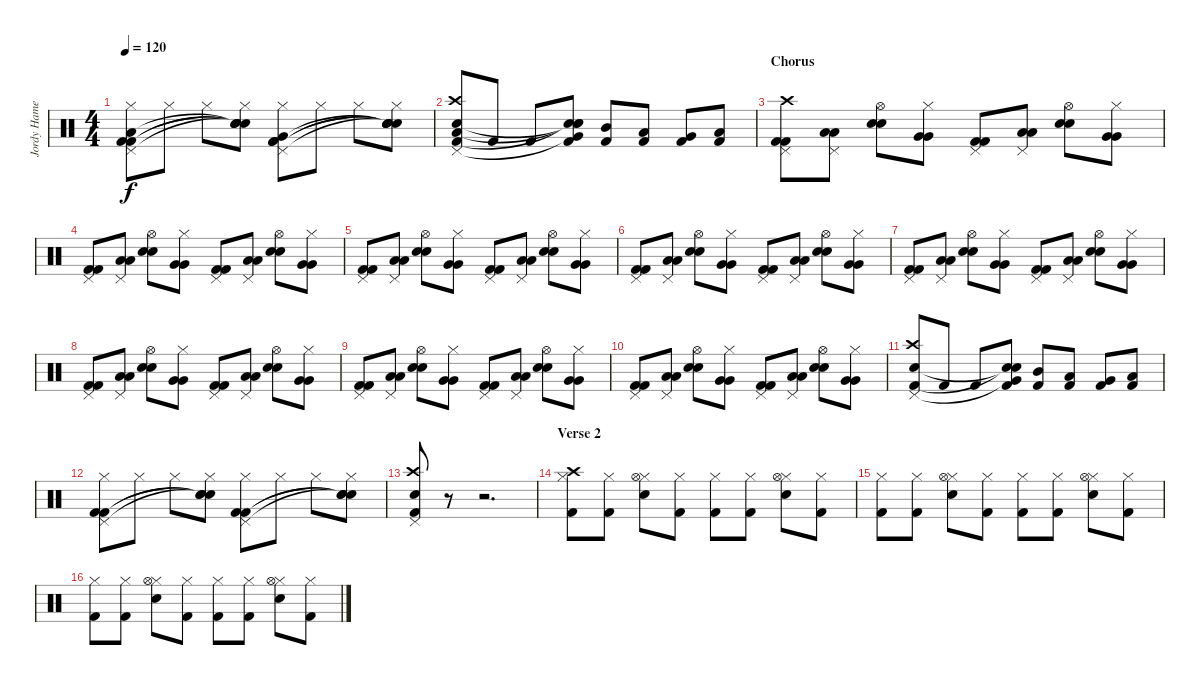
\track ("Jordy Hamer" "Jordy Hame") {instrument percussion}
\staff {score}
\articulation defaults
\ts (4 4)
\tempo 120
\clef neutral
\ks c
("Hi-Hat (closed)" "Pedal Hi-Hat (hit)" "Kick (hit) 2" "Kick (hit) 2" "Low Floor Tom (hit)").8{dy f} "Hi-Hat (closed)".8 "Hi-Hat (closed)".8 ("Hi-Hat (closed)" "Snare (hit)"{t} "Snare (hit)"{t} "Snare (hit)"{t} "Snare (hit)"{t}).8 ("Hi-Hat (closed)" "Pedal Hi-Hat (hit)" "Kick (hit) 2" "Kick (hit) 2" "Very Low Tom (hit)").8 "Hi-Hat (closed)".8 "Hi-Hat (closed)".8 ("Hi-Hat (closed)" "Snare (hit)"{t} "Snare (hit)"{t} "Snare (hit)"{t} "Snare (hit)"{t}).8 |
("Crash high (hit)" "Pedal Hi-Hat (hit)" "Electric Snare (hit)" "Kick (hit) 2" "Low Tom (hit)").8 "Kick (hit) 2".8 "Kick (hit) 2".8 ("Kick (hit) 2" "Very Low Tom (hit)"{t} "Snare (hit)"{t} "Snare (hit)"{t} "Snare (hit)"{t}).8 ("Kick (hit) 2" "Mid Tom (hit)").8 ("Kick (hit) 2" "Low Tom (hit)").8 ("Kick (hit) 2" "Very Low Tom (hit)").8 ("Kick (hit) 2" "Low Floor Tom (hit)").8 |
\section ("" "Chorus")
("Crash high (hit)" "Pedal Hi-Hat (hit)" "Kick (hit) 2" "Kick (hit) 2").8 ("Pedal Hi-Hat (hit)" "Low Floor Tom (hit)" "Low Floor Tom (hit)").8 ("Hi-Hat (open)" "Electric Snare (hit)" "Electric Snare (hit)").8 ("Hi-Hat (closed)" "Very Low Tom (hit)" "Very Low Tom (hit)").8 ("Pedal Hi-Hat (hit)" "Kick (hit) 2" "Kick (hit) 2").8 ("Pedal Hi-Hat (hit)" "Low Floor Tom (hit)" "Low Floor Tom (hit)").8 ("Hi-Hat (open)" "Electric Snare (hit)" "Electric Snare (hit)").8 ("Hi-Hat (closed)" "Very Low Tom (hit)" "Very Low Tom (hit)").8 |
("Pedal Hi-Hat (hit)" "Kick (hit) 2" "Kick (hit) 2").8 ("Pedal Hi-Hat (hit)" "Low Floor Tom (hit)" "Low Floor Tom (hit)").8 ("Hi-Hat (open)" "Electric Snare (hit)" "Electric Snare (hit)").8 ("Hi-Hat (closed)" "Very Low Tom (hit)" "Very Low Tom (hit)").8 ("Pedal Hi-Hat (hit)" "Kick (hit) 2" "Kick (hit) 2").8 ("Pedal Hi-Hat (hit)" "Low Floor Tom (hit)" "Low Floor Tom (hit)").8 ("Hi-Hat (open)" "Electric Snare (hit)" "Electric Snare (hit)").8 ("Hi-Hat (closed)" "Very Low Tom (hit)" "Very Low Tom (hit)").8 |
("Pedal Hi-Hat (hit)" "Kick (hit) 2" "Kick (hit) 2").8 ("Pedal Hi-Hat (hit)" "Low Floor Tom (hit)" "Low Floor Tom (hit)").8 ("Hi-Hat (open)" "Electric Snare (hit)" "Electric Snare (hit)").8 ("Hi-Hat (closed)" "Very Low Tom (hit)" "Very Low Tom (hit)").8 ("Pedal Hi-Hat (hit)" "Kick (hit) 2" "Kick (hit) 2").8 ("Pedal Hi-Hat (hit)" "Low Floor Tom (hit)" "Low Floor Tom (hit)").8 ("Hi-Hat (open)" "Electric Snare (hit)" "Electric Snare (hit)").8 ("Hi-Hat (closed)" "Very Low Tom (hit)" "Very Low Tom (hit)").8 |
("Pedal Hi-Hat (hit)" "Kick (hit) 2" "Kick (hit) 2").8 ("Pedal Hi-Hat (hit)" "Low Floor Tom (hit)" "Low Floor Tom (hit)").8 ("Hi-Hat (open)" "Electric Snare (hit)" "Electric Snare (hit)").8 ("Hi-Hat (closed)" "Very Low Tom (hit)" "Very Low Tom (hit)").8 ("Pedal Hi-Hat (hit)" "Kick (hit) 2" "Kick (hit) 2").8 ("Pedal Hi-Hat (hit)" "Low Floor Tom (hit)" "Low Floor Tom (hit)").8 ("Hi-Hat (open)" "Electric Snare (hit)" "Electric Snare (hit)").8 ("Hi-Hat (closed)" "Very Low Tom (hit)" "Very Low Tom (hit)").8 |
("Pedal Hi-Hat (hit)" "Kick (hit) 2" "Kick (hit) 2").8 ("Pedal Hi-Hat (hit)" "Low Floor Tom (hit)" "Low Floor Tom (hit)").8 ("Hi-Hat (open)" "Electric Snare (hit)" "Electric Snare (hit)").8 ("Hi-Hat (closed)" "Very Low Tom (hit)" "Very Low Tom (hit)").8 ("Pedal Hi-Hat (hit)" "Kick (hit) 2" "Kick (hit) 2").8 ("Pedal Hi-Hat (hit)" "Low Floor Tom (hit)" "Low Floor Tom (hit)").8 ("Hi-Hat (open)" "Electric Snare (hit)" "Electric Snare (hit)").8 ("Hi-Hat (closed)" "Very Low Tom (hit)" "Very Low Tom (hit)").8 |
("Pedal Hi-Hat (hit)" "Kick (hit) 2" "Kick (hit) 2").8 ("Pedal Hi-Hat (hit)" "Low Floor Tom (hit)" "Low Floor Tom (hit)").8 ("Hi-Hat (open)" "Electric Snare (hit)" "Electric Snare (hit)").8 ("Hi-Hat (closed)" "Very Low Tom (hit)" "Very Low Tom (hit)").8 ("Pedal Hi-Hat (hit)" "Kick (hit) 2" "Kick (hit) 2").8 ("Pedal Hi-Hat (hit)" "Low Floor Tom (hit)" "Low Floor Tom (hit)").8 ("Hi-Hat (open)" "Electric Snare (hit)" "Electric Snare (hit)").8 ("Hi-Hat (closed)" "Very Low Tom (hit)" "Very Low Tom (hit)").8 |
("Pedal Hi-Hat (hit)" "Kick (hit) 2" "Kick (hit) 2").8 ("Pedal Hi-Hat (hit)" "Low Floor Tom (hit)" "Low Floor Tom (hit)").8 ("Hi-Hat (open)" "Electric Snare (hit)" "Electric Snare (hit)").8 ("Hi-Hat (closed)" "Very Low Tom (hit)" "Very Low Tom (hit)").8 ("Pedal Hi-Hat (hit)" "Kick (hit) 2" "Kick (hit) 2").8 ("Pedal Hi-Hat (hit)" "Low Floor Tom (hit)" "Low Floor Tom (hit)").8 ("Hi-Hat (open)" "Electric Snare (hit)" "Electric Snare (hit)").8 ("Hi-Hat (closed)" "Very Low Tom (hit)" "Very Low Tom (hit)").8 |
("Pedal Hi-Hat (hit)" "Kick (hit) 2" "Kick (hit) 2").8 ("Pedal Hi-Hat (hit)" "Low Floor Tom (hit)" "Low Floor Tom (hit)").8 ("Hi-Hat (open)" "Electric Snare (hit)" "Electric Snare (hit)").8 ("Hi-Hat (closed)" "Very Low Tom (hit)" "Very Low Tom (hit)").8 ("Pedal Hi-Hat (hit)" "Kick (hit) 2" "Kick (hit) 2").8 ("Pedal Hi-Hat (hit)" "Low Floor Tom (hit)" "Low Floor Tom (hit)").8 ("Hi-Hat (open)" "Electric Snare (hit)" "Electric Snare (hit)").8 ("Hi-Hat (closed)" "Very Low Tom (hit)" "Very Low Tom (hit)").8 |
("Crash high (hit)" "Pedal Hi-Hat (hit)" "Electric Snare (hit)" "Kick (hit) 2").8 "Kick (hit) 2".8 "Kick (hit) 2".8 ("Kick (hit) 2" "Very Low Tom (hit)"{t} "Snare (hit)"{t} "Snare (hit)"{t}).8 ("Kick (hit) 2" "Mid Tom (hit)").8 ("Kick (hit) 2" "Low Tom (hit)").8 ("Kick (hit) 2" "Very Low Tom (hit)").8 ("Kick (hit) 2" "Low Floor Tom (hit)").8 |
("Hi-Hat (closed)" "Pedal Hi-Hat (hit)" "Kick (hit) 2" "Kick (hit) 2").8 "Hi-Hat (closed)".8 "Hi-Hat (closed)".8 ("Hi-Hat (closed)" "Snare (hit)"{t} "Snare (hit)"{t} "Snare (hit)"{t}).8 ("Hi-Hat (closed)" "Pedal Hi-Hat (hit)" "Kick (hit) 2" "Kick (hit) 2").8 "Hi-Hat (closed)".8 "Hi-Hat (closed)".8 ("Hi-Hat (closed)" "Snare (hit)"{t} "Snare (hit)"{t} "Snare (hit)"{t}).8 |
("Crash high (hit)" "Pedal Hi-Hat (hit)" "Electric Snare (hit)" "Kick (hit) 2").8 r.8 r.2{d} |
\section ("" "Verse 2")
("Hi-Hat (closed)" "Kick (hit) 2" "Crash high (hit)").8 ("Hi-Hat (closed)" "Kick (hit) 2").8 ("Hi-Hat (closed)" "Electric Snare (hit)" "Hi-Hat (open)").8 ("Hi-Hat (closed)" "Kick (hit) 2").8 ("Hi-Hat (closed)" "Kick (hit) 2").8 ("Hi-Hat (closed)" "Kick (hit) 2").8 ("Hi-Hat (closed)" "Electric Snare (hit)" "Hi-Hat (open)").8 ("Hi-Hat (closed)" "Kick (hit) 2").8 |
("Hi-Hat (closed)" "Kick (hit) 2").8 ("Hi-Hat (closed)" "Kick (hit) 2").8 ("Hi-Hat (closed)" "Electric Snare (hit)" "Hi-Hat (open)").8 ("Hi-Hat (closed)" "Kick (hit) 2").8 ("Hi-Hat (closed)" "Kick (hit) 2").8 ("Hi-Hat (closed)" "Kick (hit) 2").8 ("Hi-Hat (closed)" "Electric Snare (hit)" "Hi-Hat (open)").8 ("Hi-Hat (closed)" "Kick (hit) 2").8 |
("Hi-Hat (closed)" "Kick (hit) 2").8 ("Hi-Hat (closed)" "Kick (hit) 2").8 ("Hi-Hat (closed)" "Electric Snare (hit)" "Hi-Hat (open)").8 ("Hi-Hat (closed)" "Kick (hit) 2").8 ("Hi-Hat (closed)" "Kick (hit) 2").8 ("Hi-Hat (closed)" "Kick (hit) 2").8 ("Hi-Hat (closed)" "Electric Snare (hit)" "Hi-Hat (open)").8 ("Hi-Hat (closed)" "Kick (hit) 2").8
